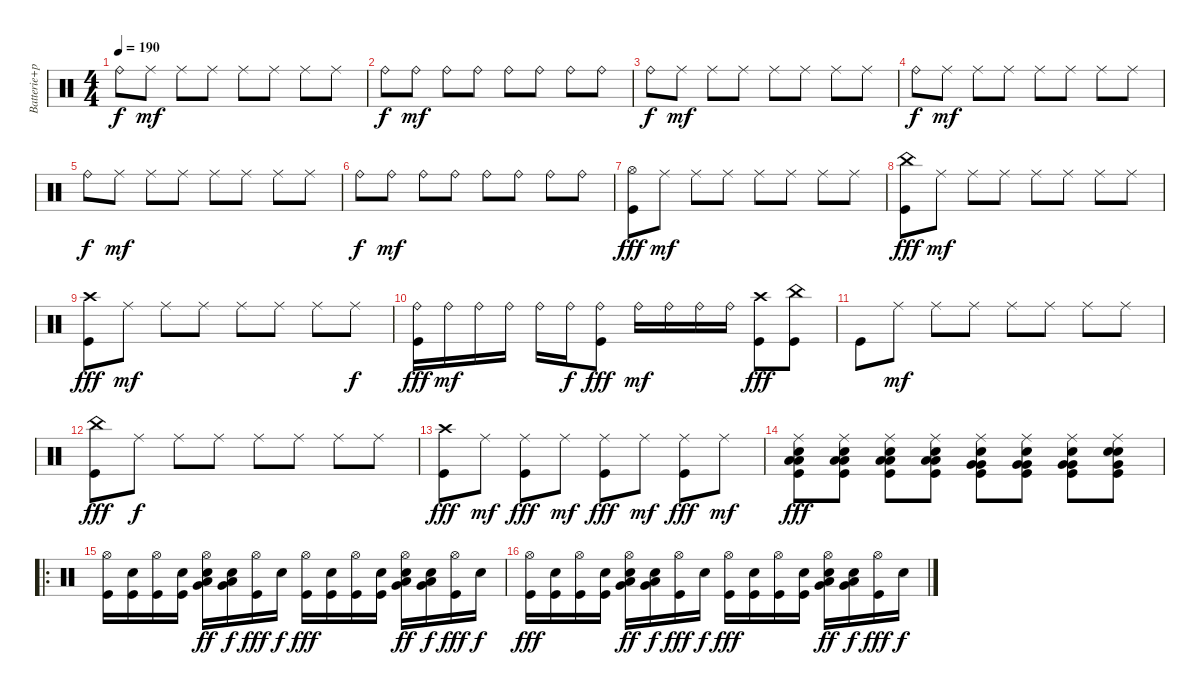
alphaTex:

\track ("Batterie+percussions" "Batterie+p") {instrument percussion}
\staff {score}
\articulation defaults
\ts (4 4)
\tempo 190
\clef neutral
\ks c "Ride (bell)".8{dy f} "Ride (middle)".8{dy mf} "Ride (middle)".8 "Ride (middle)".8 "Ride (middle)".8 "Ride (middle)".8 "Ride (middle)".8 "Ride (middle)".8
|
"Ride (bell)".8{dy f} "Ride (bell)".8{dy mf} "Ride (bell)".8 "Ride (bell)".8 "Ride (bell)".8 "Ride (bell)".8 "Ride (bell)".8 "Ride (bell)".8 |
"Ride (bell)".8{dy f} "Ride (middle)".8{dy mf} "Ride (middle)".8 "Ride (middle)".8 "Ride (middle)".8 "Ride (middle)".8 "Ride (middle)".8 "Ride (middle)".8 |
"Ride (bell)".8{dy f} "Ride (middle)".8{dy mf} "Ride (middle)".8 "Ride (middle)".8 "Ride (middle)".8 "Ride (middle)".8 "Ride (middle)".8 "Ride (middle)".8 |
"Ride (bell)".8{dy f} "Ride (middle)".8{dy mf} "Ride (middle)".8 "Ride (middle)".8 "Ride (middle)".8 "Ride (middle)".8 "Ride (middle)".8 "Ride (middle)".8 |
"Ride (bell)".8{dy f} "Ride (bell)".8{dy mf} "Ride (bell)".8 "Ride (bell)".8 "Ride (bell)".8 "Ride (bell)".8 "Ride (bell)".8 "Ride (bell)".8 |
("Kick (hit)" "Hi-Hat (open)").8{dy fff} "Ride (middle)".8{dy mf} "Ride (middle)".8 "Ride (middle)".8 "Ride (middle)".8 "Ride (middle)".8 "Ride (middle)".8 "Ride (middle)".8 |
("Kick (hit)" "China (hit)").8{dy fff} "Ride (middle)".8{dy mf} "Ride (middle)".8 "Ride (middle)".8 "Ride (middle)".8 "Ride (middle)".8 "Ride (middle)".8 "Ride (middle)".8 |
("Kick (hit)" "Crash high (hit)").8{dy fff} "Ride (middle)".8{dy mf} "Ride (middle)".8 "Ride (middle)".8 "Ride (middle)".8 "Ride (middle)".8 "Ride (middle)".8 "Ride (middle)".8{dy f} |
("Ride (bell)" "Kick (hit)").16{dy fff} "Ride (bell)".16{dy mf} "Ride (bell)".16 "Ride (bell)".16 "Ride (bell)".16 "Ride (bell)".16{dy f} ("Ride (bell)" "Kick (hit)").8{dy fff} "Ride (bell)".16{dy mf} "Ride (bell)".16 "Ride (bell)".16 "Ride (bell)".16 ("Kick (hit)" "Crash high (hit)").8{dy fff} ("Kick (hit)" "China (hit)").8 |
"Kick (hit)".8 "Ride (middle)".8{dy mf} "Ride (middle)".8 "Ride (middle)".8 "Ride (middle)".8 "Ride (middle)".8 "Ride (middle)".8 "Ride (middle)".8 |
("Kick (hit)" "China (hit)").8{dy fff} "Ride (middle)".8{dy f} "Ride (middle)".8 "Ride (middle)".8 "Ride (middle)".8 "Ride (middle)".8 "Ride (middle)".8 "Ride (middle)".8 |
("Kick (hit)" "Crash high (hit)").8{dy fff} "Ride (middle)".8{dy mf} ("Ride (middle)" "Kick (hit)").8{dy fff} "Ride (middle)".8{dy mf} ("Ride (middle)" "Kick (hit)").8{dy fff} "Ride (middle)".8{dy mf} ("Ride (middle)" "Kick (hit)").8{dy fff} "Ride (middle)".8{dy mf} |
("Ride (middle)" "Kick (hit)" "Electric Snare (hit)" "Low Floor Tom (hit)" "Low Floor Tom (hit)").8{dy fff} ("Ride (middle)" "Kick (hit)" "Electric Snare (hit)" "Low Floor Tom (hit)" "Low Floor Tom (hit)").8 ("Ride (middle)" "Kick (hit)" "Electric Snare (hit)" "Low Floor Tom (hit)" "Low Floor Tom (hit)").8 ("Ride (middle)" "Kick (hit)" "Electric Snare (hit)" "Low Floor Tom (hit)" "Low Floor Tom (hit)").8 ("Ride (middle)" "Kick (hit)" "Electric Snare (hit)" "Very Low Tom (hit)" "Very Low Tom (hit)").8 ("Ride (middle)" "Kick (hit)" "Electric Snare (hit)" "Very Low Tom (hit)" "Very Low Tom (hit)").8 ("Ride (middle)" "Kick (hit)" "Electric Snare (hit)" "Very Low Tom (hit)" "Very Low Tom (hit)").8 ("Ride (middle)" "Kick (hit)" "Electric Snare (hit)" "Metronome (bell)" "Very Low Tom (hit)").8 |
\ro
("Hi-Hat (open)" "Kick (hit)").16 ("Snare (hit)" "Kick (hit)").16 ("Hi-Hat (open)" "Kick (hit)").16 ("Snare (hit)" "Kick (hit)").16 ("Hi-Hat (open)" "Electric Snare (hit)" "Low Floor Tom (hit)" "Very Low Tom (hit)").16{dy ff} ("Snare (hit)" "Low Floor Tom (hit)" "Very Low Tom (hit)").16{dy f} ("Hi-Hat (open)" "Kick (hit)").16{dy fff} "Snare (hit)".16{dy f} ("Hi-Hat (open)" "Kick (hit)").16{dy fff} ("Snare (hit)" "Kick (hit)").16 ("Hi-Hat (open)" "Kick (hit)").16 ("Snare (hit)" "Kick (hit)").16 ("Hi-Hat (open)" "Electric Snare (hit)" "Low Floor Tom (hit)" "Very Low Tom (hit)").16{dy ff} ("Snare (hit)" "Low Floor Tom (hit)" "Very Low Tom (hit)").16{dy f} ("Hi-Hat (open)" "Kick (hit)").16{dy fff} "Snare (hit)".16{dy f} |
("Hi-Hat (open)" "Kick (hit)").16{dy fff} ("Snare (hit)" "Kick (hit)").16 ("Hi-Hat (open)" "Kick (hit)").16 ("Snare (hit)" "Kick (hit)").16 ("Hi-Hat (open)" "Electric Snare (hit)" "Low Floor Tom (hit)" "Very Low Tom (hit)").16{dy ff} ("Snare (hit)" "Low Floor Tom (hit)" "Very Low Tom (hit)").16{dy f} ("Hi-Hat (open)" "Kick (hit)").16{dy fff} "Snare (hit)".16{dy f} ("Hi-Hat (open)" "Kick (hit)").16{dy fff} ("Snare (hit)" "Kick (hit)").16 ("Hi-Hat (open)" "Kick (hit)").16 ("Snare (hit)" "Kick (hit)").16 ("Hi-Hat (open)" "Electric Snare (hit)" "Low Floor Tom (hit)" "Very Low Tom (hit)").16{dy ff} ("Snare (hit)" "Low Floor Tom (hit)" "Very Low Tom (hit)").16{dy f} ("Hi-Hat (open)" "Kick (hit)").16{dy fff} "Snare (hit)".16{dy f}
